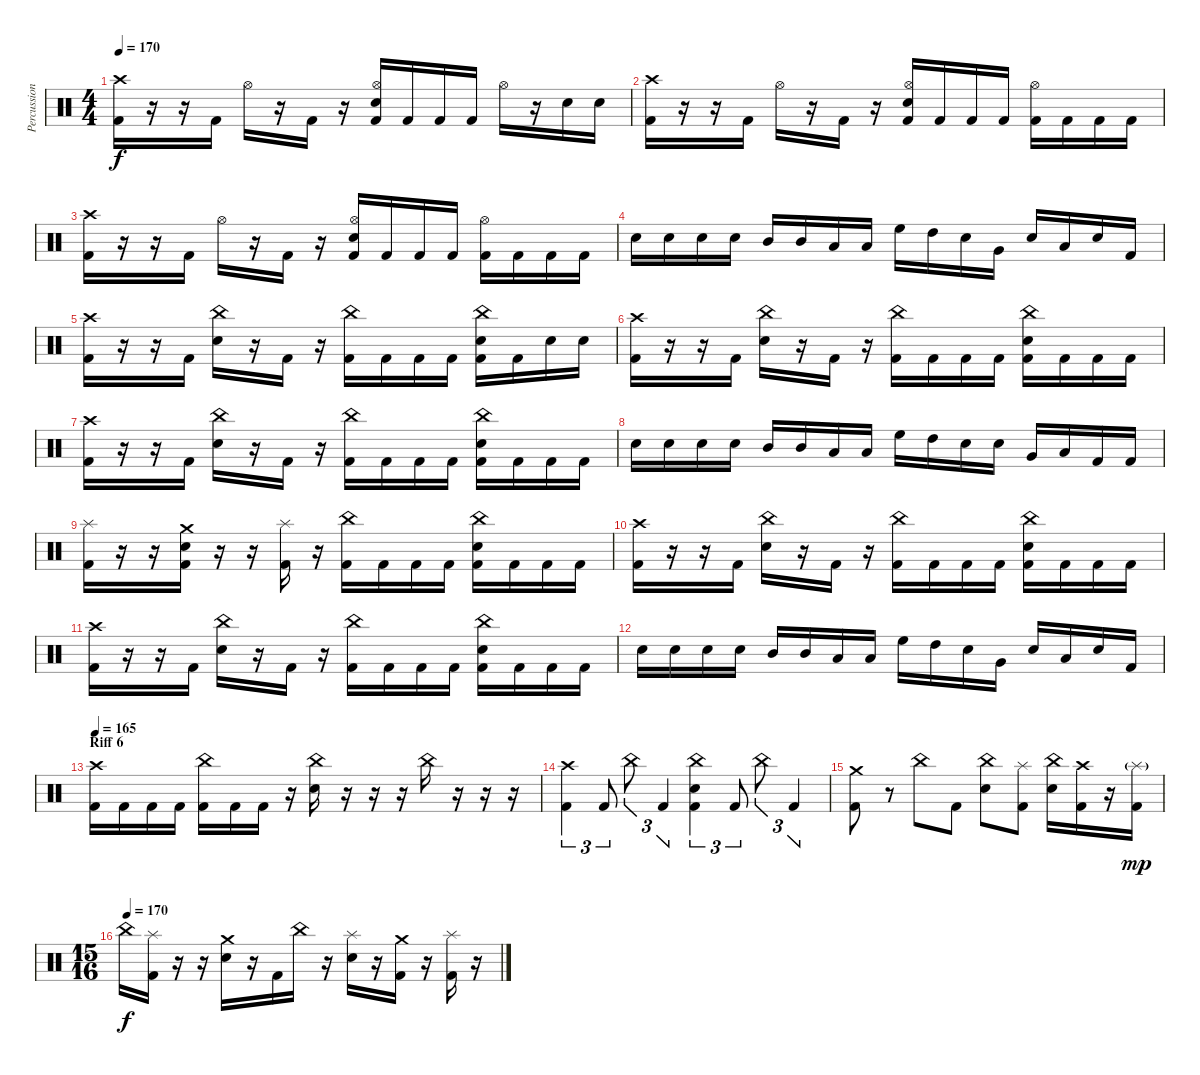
\track ("Percussion" "Percussion") {instrument percussion}
\staff {score}
\articulation defaults
\ts (4 4)
\tempo 170
\clef neutral
\ks c
("Crash high (hit)" "Kick (hit) 2").16{dy f} r.16 r.16 "Kick (hit) 2".16 "Hi-Hat (open)".16 r.16 "Kick (hit) 2".16 r.16 ("Hi-Hat (open)" "Electric Snare (hit)" "Kick (hit) 2").16 "Kick (hit) 2".16 "Kick (hit) 2".16 "Kick (hit) 2".16 "Hi-Hat (open)".16 r.16 "Electric Snare (hit)".16 "Electric Snare (hit)".16 |
("Crash high (hit)" "Kick (hit) 2").16 r.16 r.16 "Kick (hit) 2".16 "Hi-Hat (open)".16 r.16 "Kick (hit) 2".16 r.16 ("Hi-Hat (open)" "Electric Snare (hit)" "Kick (hit) 2").16 "Kick (hit) 2".16 "Kick (hit) 2".16 "Kick (hit) 2".16 ("Hi-Hat (open)" "Kick (hit) 2").16 "Kick (hit) 2".16 "Kick (hit) 2".16 "Kick (hit) 2".16 |
("Crash high (hit)" "Kick (hit) 2").16 r.16 r.16 "Kick (hit) 2".16 "Hi-Hat (open)".16 r.16 "Kick (hit) 2".16 r.16 ("Hi-Hat (open)" "Electric Snare (hit)" "Kick (hit) 2").16 "Kick (hit) 2".16 "Kick (hit) 2".16 "Kick (hit) 2".16 ("Hi-Hat (open)" "Kick (hit) 2").16 "Kick (hit) 2".16 "Kick (hit) 2".16 "Kick (hit) 2".16 |
"Electric Snare (hit)".16 "Electric Snare (hit)".16 "Electric Snare (hit)".16 "Electric Snare (hit)".16 "Mid Tom (hit)".16 "Mid Tom (hit)".16 "Low Tom (hit)".16 "Low Tom (hit)".16 "High Floor Tom (hit)".16 "High Tom (hit)".16 "Electric Snare (hit)".16 "Very Low Tom (hit)".16 "Electric Snare (hit)".16 "Low Floor Tom (hit)".16 "Electric Snare (hit)".16 "Kick (hit) 2".16 |
("Crash high (hit)" "Kick (hit) 2").16 r.16 r.16 "Kick (hit) 2".16 ("China (hit)" "Electric Snare (hit)").16 r.16 "Kick (hit) 2".16 r.16 ("China (hit)" "Kick (hit) 2").16 "Kick (hit) 2".16 "Kick (hit) 2".16 "Kick (hit) 2".16 ("China (hit)" "Electric Snare (hit)" "Kick (hit) 2").16 "Kick (hit) 2".16 "Electric Snare (hit)".16 "Electric Snare (hit)".16 |
("Crash high (hit)" "Kick (hit) 2").16 r.16 r.16 "Kick (hit) 2".16 ("China (hit)" "Electric Snare (hit)").16 r.16 "Kick (hit) 2".16 r.16 ("China (hit)" "Kick (hit) 2").16 "Kick (hit) 2".16 "Kick (hit) 2".16 "Kick (hit) 2".16 ("China (hit)" "Electric Snare (hit)" "Kick (hit) 2").16 "Kick (hit) 2".16 "Kick (hit) 2".16 "Kick (hit) 2".16 |
("Crash high (hit)" "Kick (hit) 2").16 r.16 r.16 "Kick (hit) 2".16 ("China (hit)" "Electric Snare (hit)").16 r.16 "Kick (hit) 2".16 r.16 ("China (hit)" "Kick (hit) 2").16 "Kick (hit) 2".16 "Kick (hit) 2".16 "Kick (hit) 2".16 ("China (hit)" "Electric Snare (hit)" "Kick (hit) 2").16 "Kick (hit) 2".16 "Kick (hit) 2".16 "Kick (hit) 2".16 |
"Electric Snare (hit)".16 "Electric Snare (hit)".16 "Electric Snare (hit)".16 "Electric Snare (hit)".16 "Mid Tom (hit)".16 "Mid Tom (hit)".16 "Low Tom (hit)".16 "Low Tom (hit)".16 "High Floor Tom (hit)".16 "High Tom (hit)".16 "Electric Snare (hit)".16 "Electric Snare (hit)".16 "Very Low Tom (hit)".16 "Low Floor Tom (hit)".16 "Kick (hit) 2".16 "Kick (hit) 2".16 |
("Splash (hit)" "Kick (hit) 2").16 r.16 r.16 ("Crash medium (hit)" "Electric Snare (hit)" "Kick (hit) 2").16 r.16 r.16 ("Splash (hit)" "Kick (hit) 2").16 r.16 ("China (hit)" "Kick (hit) 2").16 "Kick (hit) 2".16 "Kick (hit) 2".16 "Kick (hit) 2".16 ("China (hit)" "Electric Snare (hit)" "Kick (hit) 2").16 "Kick (hit) 2".16 "Kick (hit) 2".16 "Kick (hit) 2".16 |
("Crash high (hit)" "Kick (hit) 2").16 r.16 r.16 "Kick (hit) 2".16 ("China (hit)" "Electric Snare (hit)").16 r.16 "Kick (hit) 2".16 r.16 ("China (hit)" "Kick (hit) 2").16 "Kick (hit) 2".16 "Kick (hit) 2".16 "Kick (hit) 2".16 ("China (hit)" "Electric Snare (hit)" "Kick (hit) 2").16 "Kick (hit) 2".16 "Kick (hit) 2".16 "Kick (hit) 2".16 |
("Crash high (hit)" "Kick (hit) 2").16 r.16 r.16 "Kick (hit) 2".16 ("China (hit)" "Electric Snare (hit)").16 r.16 "Kick (hit) 2".16 r.16 ("China (hit)" "Kick (hit) 2").16 "Kick (hit) 2".16 "Kick (hit) 2".16 "Kick (hit) 2".16 ("China (hit)" "Electric Snare (hit)" "Kick (hit) 2").16 "Kick (hit) 2".16 "Kick (hit) 2".16 "Kick (hit) 2".16 |
"Electric Snare (hit)".16 "Electric Snare (hit)".16 "Electric Snare (hit)".16 "Electric Snare (hit)".16 "Mid Tom (hit)".16 "Mid Tom (hit)".16 "Low Tom (hit)".16 "Low Tom (hit)".16 "High Floor Tom (hit)".16 "High Tom (hit)".16 "Electric Snare (hit)".16 "Very Low Tom (hit)".16 "Electric Snare (hit)".16 "Low Floor Tom (hit)".16 "Electric Snare (hit)".16 "Kick (hit) 2".16 |
\section ("" "Riff 6")
\tempo 165
("Crash high (hit)" "Kick (hit) 2").16 "Kick (hit) 2".16 "Kick (hit) 2".16 "Kick (hit) 2".16 ("China (hit)" "Kick (hit) 2").16 "Kick (hit) 2".16 "Kick (hit) 2".16 r.16 ("China (hit)" "Electric Snare (hit)").16 r.16 r.16 r.16 "China (hit)".16 r.16 r.16 r.16 |
("Crash high (hit)" "Kick (hit) 2").4{tu (3 2)} "Kick (hit) 2".8{tu (3 2)} "China (hit)".8{tu (3 2)} "Kick (hit) 2".4{tu (3 2)} ("China (hit)" "Electric Snare (hit)" "Kick (hit) 2").4{tu (3 2)} "Kick (hit) 2".8{tu (3 2)} "China (hit)".8{tu (3 2)} "Kick (hit) 2".4{tu (3 2)} |
("Crash medium (hit)" "Kick (hit) 2").8 r.8 "China (hit)".8 "Kick (hit) 2".8 ("China (hit)" "Electric Snare (hit)").8 ("Splash (hit)" "Kick (hit) 2").8 ("China (hit)" "Electric Snare (hit)").16 ("Crash high (hit)" "Kick (hit) 2").16 r.16 ("Splash (hit)"{g} "Kick (hit) 2").16{dy mp} |
\ts (15 16)
\tempo (170)
"China (hit)".16{dy f} ("Splash (hit)" "Kick (hit) 2").16 r.16 r.16 ("Crash medium (hit)" "Electric Snare (hit)").16 r.16 "Kick (hit) 2".16 "China (hit)".16 r.16 ("Splash (hit)" "Electric Snare (hit)").16 r.16 ("Crash medium (hit)" "Kick (hit) 2").16 r.16 ("Splash (hit)" "Kick (hit) 2").16 r.16
